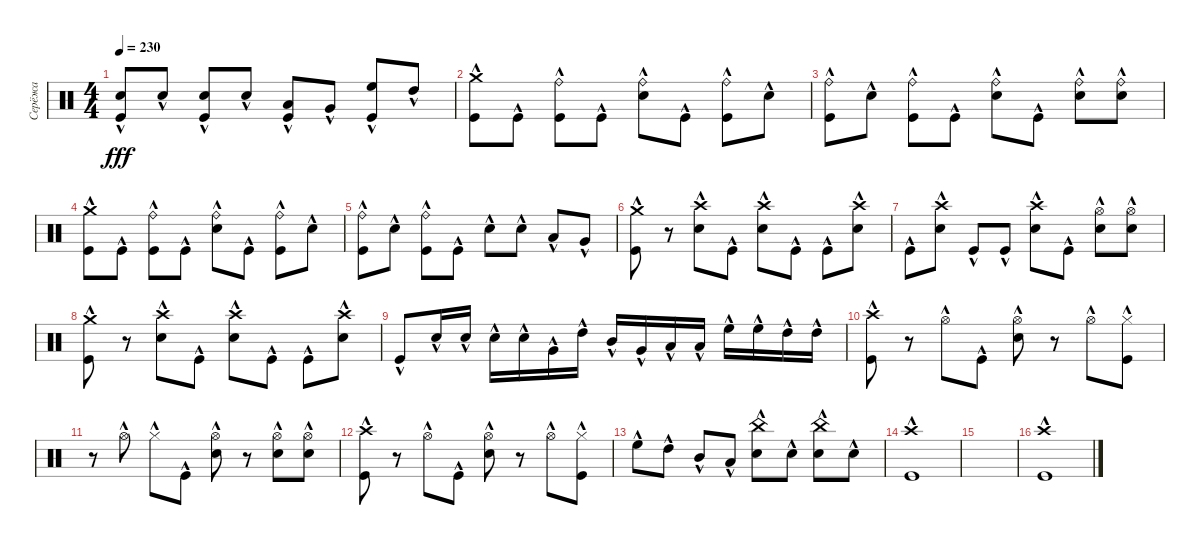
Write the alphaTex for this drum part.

\track ("Серёжа" "Серёжа") {instrument percussion}
\staff {score}
\articulation defaults
\ts (4 4)
\tempo 230
\clef neutral
\ks c
("Snare (hit) 2"{hac} "Kick (hit)"{hac}).8{dy fff} "Snare (hit) 2"{hac}.8 ("Snare (hit) 2"{hac} "Kick (hit)"{hac}).8 "Snare (hit) 2"{hac}.8 ("Low Tom (hit)"{hac} "Kick (hit)"{hac}).8 "Very Low Tom (hit)"{hac}.8 ("High Floor Tom (hit)"{hac} "Kick (hit)"{hac}).8 "High Tom (hit)"{hac}.8 |
("Crash medium (hit)"{hac} "Kick (hit)"{hac}).8 "Kick (hit)"{hac}.8 ("Ride (bell)" "Kick (hit)"{hac}).8 "Kick (hit)"{hac}.8 ("Ride (bell)" "Snare (hit) 2"{hac}).8 "Kick (hit)"{hac}.8 ("Ride (bell)" "Kick (hit)"{hac}).8 "Snare (hit) 2"{hac}.8 |
("Ride (bell)" "Kick (hit)"{hac}).8 "Snare (hit) 2"{hac}.8 ("Ride (bell)" "Kick (hit)"{hac}).8 "Kick (hit)"{hac}.8 ("Ride (bell)" "Snare (hit) 2"{hac}).8 "Kick (hit)"{hac}.8 ("Ride (bell)" "Snare (hit) 2"{hac}).8 ("Ride (bell)" "Snare (hit) 2"{hac}).8 |
("Crash medium (hit)"{hac} "Kick (hit)"{hac}).8 "Kick (hit)"{hac}.8 ("Ride (bell)" "Kick (hit)"{hac}).8 "Kick (hit)"{hac}.8 ("Ride (bell)" "Snare (hit) 2"{hac}).8 "Kick (hit)"{hac}.8 ("Ride (bell)" "Kick (hit)"{hac}).8 "Snare (hit) 2"{hac}.8 |
("Ride (bell)" "Kick (hit)"{hac}).8 "Snare (hit) 2"{hac}.8 ("Ride (bell)" "Kick (hit)"{hac}).8 "Kick (hit)"{hac}.8 "Snare (hit) 2"{hac}.8 "Snare (hit) 2"{hac}.8 "Low Tom (hit)"{hac}.8 "Very Low Tom (hit)"{hac}.8 |
("Crash medium (hit)"{hac} "Kick (hit)"{hac}).8 r.8 ("Crash high (hit)" "Snare (hit) 2"{hac}).8 "Kick (hit)"{hac}.8 ("Crash high (hit)" "Snare (hit) 2"{hac}).8 "Kick (hit)"{hac}.8 "Kick (hit)"{hac}.8 ("Crash high (hit)" "Snare (hit) 2"{hac}).8 |
"Kick (hit)"{hac}.8 ("Crash high (hit)" "Snare (hit) 2"{hac}).8 "Kick (hit)"{hac}.8 "Kick (hit)"{hac}.8 ("Crash high (hit)" "Snare (hit) 2"{hac}).8 "Kick (hit)"{hac}.8 ("Hi-Hat (open)" "Snare (hit) 2"{hac}).8 ("Hi-Hat (open)" "Snare (hit) 2"{hac}).8 |
("Crash medium (hit)"{hac} "Kick (hit)"{hac}).8 r.8 ("Crash high (hit)" "Snare (hit) 2"{hac}).8 "Kick (hit)"{hac}.8 ("Crash high (hit)" "Snare (hit) 2"{hac}).8 "Kick (hit)"{hac}.8 "Kick (hit)"{hac}.8 ("Crash high (hit)" "Snare (hit) 2"{hac}).8 |
"Kick (hit)"{hac}.8 "Snare (hit) 2"{hac}.16 "Snare (hit) 2"{hac}.16 "Snare (hit) 2"{hac}.16 "Snare (hit) 2"{hac}.16 "Very Low Tom (hit)"{hac}.16 "High Tom (hit)"{hac}.16 "Mid Tom (hit)"{hac}.16 "Very Low Tom (hit)"{hac}.16 "Low Tom (hit)"{hac}.16 "Low Tom (hit)"{hac}.16 "High Floor Tom (hit)"{hac}.16 "High Floor Tom (hit)"{hac}.16 "High Tom (hit)"{hac}.16 "High Tom (hit)"{hac}.16 |
("Crash high (hit)"{hac} "Kick (hit)"{hac}).8 r.8 "Hi-Hat (open)"{hac}.8 "Kick (hit)"{hac}.8 ("Hi-Hat (open)" "Snare (hit) 2"{hac}).8 r.8 "Hi-Hat (open)"{hac}.8 ("Hi-Hat (closed)"{hac} "Kick (hit)"{hac}).8 |
r.8 "Hi-Hat (open)"{hac}.8 "Hi-Hat (closed)"{hac}.8 "Kick (hit)"{hac}.8 ("Hi-Hat (open)" "Snare (hit) 2"{hac}).8 r.8 ("Hi-Hat (open)" "Snare (hit) 2"{hac}).8 ("Hi-Hat (open)" "Snare (hit) 2"{hac}).8 |
("Crash high (hit)"{hac} "Kick (hit)"{hac}).8 r.8 "Hi-Hat (open)"{hac}.8 "Kick (hit)"{hac}.8 ("Hi-Hat (open)" "Snare (hit) 2"{hac}).8 r.8 "Hi-Hat (open)"{hac}.8 ("Hi-Hat (closed)"{hac} "Kick (hit)"{hac}).8 |
"High Floor Tom (hit)"{hac}.8 "High Tom (hit)"{hac}.8 "Mid Tom (hit)"{hac}.8 "Low Tom (hit)"{hac}.8 ("China (hit)" "Snare (hit) 2"{hac}).8 "Snare (hit) 2"{hac}.8 ("China (hit)" "Snare (hit) 2"{hac}).8 "Snare (hit) 2"{hac}.8 |
("Crash high (hit)"{hac} "Kick (hit)"{hac}).1 |
|
("Crash high (hit)"{hac} "Kick (hit)"{hac}).1
